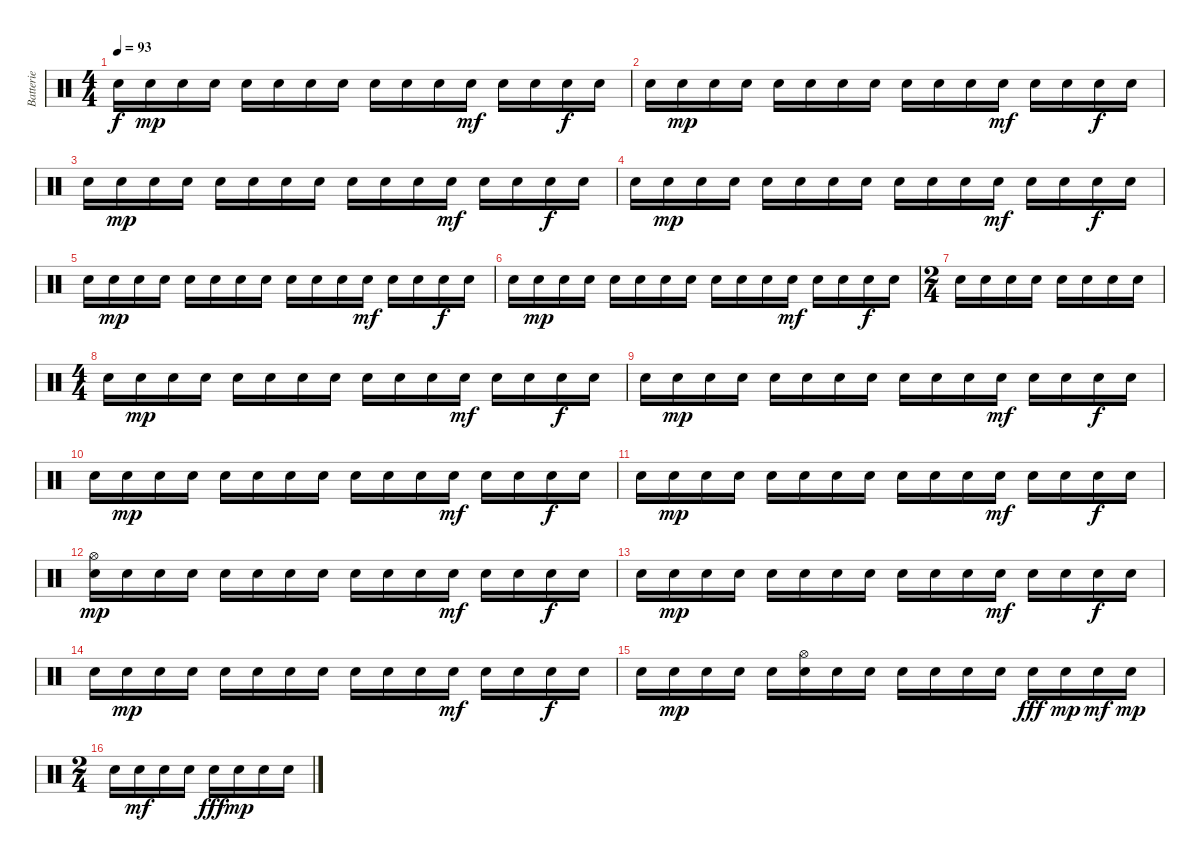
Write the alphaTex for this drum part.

\track ("Batterie" "Batterie") {instrument percussion}
\staff {score}
\articulation defaults
\ts (4 4)
\tempo 93
\clef neutral
\ks c "Snare (hit) 2".16{dy f} "Snare (hit) 2".16{dy mp} "Snare (hit) 2".16 "Snare (hit) 2".16 "Snare (hit) 2".16 "Snare (hit) 2".16 "Snare (hit) 2".16 "Snare (hit) 2".16 "Snare (hit) 2".16 "Snare (hit) 2".16 "Snare (hit) 2".16 "Snare (hit) 2".16{dy mf} "Snare (hit) 2".16 "Snare (hit) 2".16 "Snare (hit) 2".16{dy f} "Snare (hit) 2".16
|
"Snare (hit) 2".16 "Snare (hit) 2".16{dy mp} "Snare (hit) 2".16 "Snare (hit) 2".16 "Snare (hit) 2".16 "Snare (hit) 2".16 "Snare (hit) 2".16 "Snare (hit) 2".16 "Snare (hit) 2".16 "Snare (hit) 2".16 "Snare (hit) 2".16 "Snare (hit) 2".16{dy mf} "Snare (hit) 2".16 "Snare (hit) 2".16 "Snare (hit) 2".16{dy f} "Snare (hit) 2".16 |
"Snare (hit) 2".16 "Snare (hit) 2".16{dy mp} "Snare (hit) 2".16 "Snare (hit) 2".16 "Snare (hit) 2".16 "Snare (hit) 2".16 "Snare (hit) 2".16 "Snare (hit) 2".16 "Snare (hit) 2".16 "Snare (hit) 2".16 "Snare (hit) 2".16 "Snare (hit) 2".16{dy mf} "Snare (hit) 2".16 "Snare (hit) 2".16 "Snare (hit) 2".16{dy f} "Snare (hit) 2".16 |
"Snare (hit) 2".16 "Snare (hit) 2".16{dy mp} "Snare (hit) 2".16 "Snare (hit) 2".16 "Snare (hit) 2".16 "Snare (hit) 2".16 "Snare (hit) 2".16 "Snare (hit) 2".16 "Snare (hit) 2".16 "Snare (hit) 2".16 "Snare (hit) 2".16 "Snare (hit) 2".16{dy mf} "Snare (hit) 2".16 "Snare (hit) 2".16 "Snare (hit) 2".16{dy f} "Snare (hit) 2".16 |
"Snare (hit) 2".16 "Snare (hit) 2".16{dy mp} "Snare (hit) 2".16 "Snare (hit) 2".16 "Snare (hit) 2".16 "Snare (hit) 2".16 "Snare (hit) 2".16 "Snare (hit) 2".16 "Snare (hit) 2".16 "Snare (hit) 2".16 "Snare (hit) 2".16 "Snare (hit) 2".16{dy mf} "Snare (hit) 2".16 "Snare (hit) 2".16 "Snare (hit) 2".16{dy f} "Snare (hit) 2".16 |
"Snare (hit) 2".16 "Snare (hit) 2".16{dy mp} "Snare (hit) 2".16 "Snare (hit) 2".16 "Snare (hit) 2".16 "Snare (hit) 2".16 "Snare (hit) 2".16 "Snare (hit) 2".16 "Snare (hit) 2".16 "Snare (hit) 2".16 "Snare (hit) 2".16 "Snare (hit) 2".16{dy mf} "Snare (hit) 2".16 "Snare (hit) 2".16 "Snare (hit) 2".16{dy f} "Snare (hit) 2".16 |
\ts (2 4)
"Snare (hit) 2".16 "Snare (hit) 2".16 "Snare (hit) 2".16 "Snare (hit) 2".16 "Snare (hit) 2".16 "Snare (hit) 2".16 "Snare (hit) 2".16 "Snare (hit) 2".16 |
\ts (4 4)
"Snare (hit) 2".16 "Snare (hit) 2".16{dy mp} "Snare (hit) 2".16 "Snare (hit) 2".16 "Snare (hit) 2".16 "Snare (hit) 2".16 "Snare (hit) 2".16 "Snare (hit) 2".16 "Snare (hit) 2".16 "Snare (hit) 2".16 "Snare (hit) 2".16 "Snare (hit) 2".16{dy mf} "Snare (hit) 2".16 "Snare (hit) 2".16 "Snare (hit) 2".16{dy f} "Snare (hit) 2".16 |
"Snare (hit) 2".16 "Snare (hit) 2".16{dy mp} "Snare (hit) 2".16 "Snare (hit) 2".16 "Snare (hit) 2".16 "Snare (hit) 2".16 "Snare (hit) 2".16 "Snare (hit) 2".16 "Snare (hit) 2".16 "Snare (hit) 2".16 "Snare (hit) 2".16 "Snare (hit) 2".16{dy mf} "Snare (hit) 2".16 "Snare (hit) 2".16 "Snare (hit) 2".16{dy f} "Snare (hit) 2".16 |
"Snare (hit) 2".16 "Snare (hit) 2".16{dy mp} "Snare (hit) 2".16 "Snare (hit) 2".16 "Snare (hit) 2".16 "Snare (hit) 2".16 "Snare (hit) 2".16 "Snare (hit) 2".16 "Snare (hit) 2".16 "Snare (hit) 2".16 "Snare (hit) 2".16 "Snare (hit) 2".16{dy mf} "Snare (hit) 2".16 "Snare (hit) 2".16 "Snare (hit) 2".16{dy f} "Snare (hit) 2".16 |
"Snare (hit) 2".16 "Snare (hit) 2".16{dy mp} "Snare (hit) 2".16 "Snare (hit) 2".16 "Snare (hit) 2".16 "Snare (hit) 2".16 "Snare (hit) 2".16 "Snare (hit) 2".16 "Snare (hit) 2".16 "Snare (hit) 2".16 "Snare (hit) 2".16 "Snare (hit) 2".16{dy mf} "Snare (hit) 2".16 "Snare (hit) 2".16 "Snare (hit) 2".16{dy f} "Snare (hit) 2".16 |
("Hi-Hat (open)" "Snare (hit) 2").16{dy mp} "Snare (hit) 2".16 "Snare (hit) 2".16 "Snare (hit) 2".16 "Snare (hit) 2".16 "Snare (hit) 2".16 "Snare (hit) 2".16 "Snare (hit) 2".16 "Snare (hit) 2".16 "Snare (hit) 2".16 "Snare (hit) 2".16 "Snare (hit) 2".16{dy mf} "Snare (hit) 2".16 "Snare (hit) 2".16 "Snare (hit) 2".16{dy f} "Snare (hit) 2".16 |
"Snare (hit) 2".16 "Snare (hit) 2".16{dy mp} "Snare (hit) 2".16 "Snare (hit) 2".16 "Snare (hit) 2".16 "Snare (hit) 2".16 "Snare (hit) 2".16 "Snare (hit) 2".16 "Snare (hit) 2".16 "Snare (hit) 2".16 "Snare (hit) 2".16 "Snare (hit) 2".16{dy mf} "Snare (hit) 2".16 "Snare (hit) 2".16 "Snare (hit) 2".16{dy f} "Snare (hit) 2".16 |
"Snare (hit) 2".16 "Snare (hit) 2".16{dy mp} "Snare (hit) 2".16 "Snare (hit) 2".16 "Snare (hit) 2".16 "Snare (hit) 2".16 "Snare (hit) 2".16 "Snare (hit) 2".16 "Snare (hit) 2".16 "Snare (hit) 2".16 "Snare (hit) 2".16 "Snare (hit) 2".16{dy mf} "Snare (hit) 2".16 "Snare (hit) 2".16 "Snare (hit) 2".16{dy f} "Snare (hit) 2".16 |
"Snare (hit) 2".16 "Snare (hit) 2".16{dy mp} "Snare (hit) 2".16 "Snare (hit) 2".16 "Snare (hit) 2".16 ("Hi-Hat (open)" "Snare (hit) 2").16 "Snare (hit) 2".16 "Snare (hit) 2".16 "Snare (hit) 2".16 "Snare (hit) 2".16 "Snare (hit) 2".16 "Snare (hit) 2".16 "Snare (hit) 2".16{dy fff} "Snare (hit) 2".16{dy mp} "Snare (hit) 2".16{dy mf} "Snare (hit) 2".16{dy mp} |
\ts (2 4)
"Snare (hit) 2".16 "Snare (hit) 2".16{dy mf} "Snare (hit) 2".16 "Snare (hit) 2".16 "Snare (hit) 2".16{dy fff} "Snare (hit) 2".16{dy mp} "Snare (hit) 2".16 "Snare (hit) 2".16
